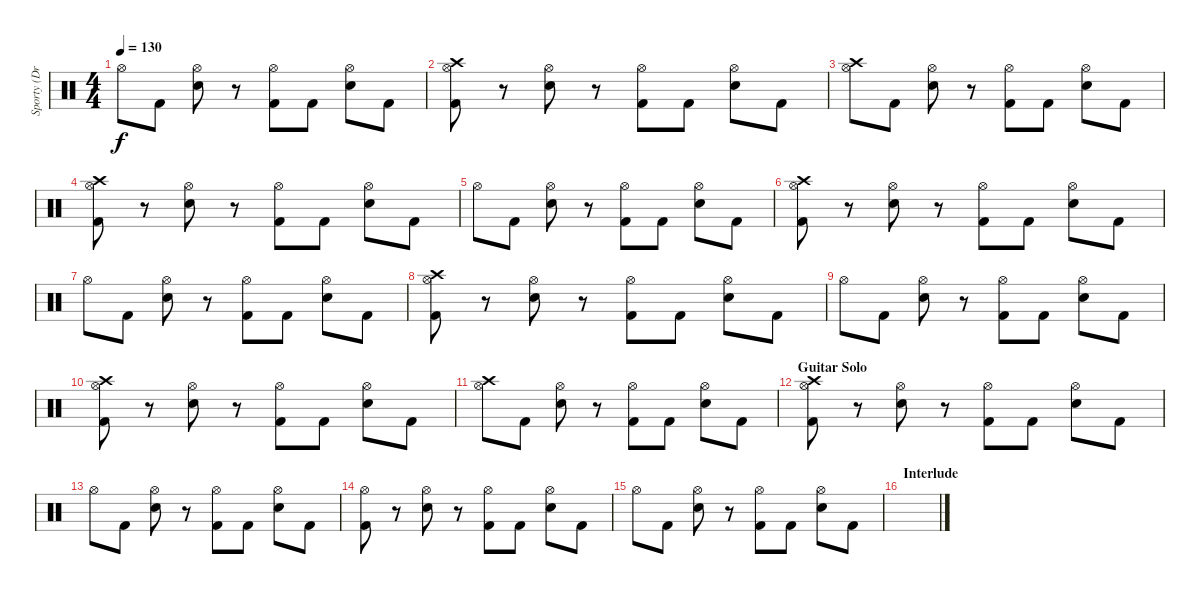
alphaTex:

\track ("Sporty (Drums)" "Sporty (Dr") {instrument percussion}
\staff {score}
\articulation defaults
\ts (4 4)
\tempo 130
\clef neutral
\ks c "Hi-Hat (open)".8{dy f} "Kick (hit) 2".8
("Hi-Hat (open)" "Snare (hit) 2").8 r.8 ("Hi-Hat (open)" "Kick (hit) 2").8 "Kick (hit) 2".8 ("Hi-Hat (open)" "Snare (hit) 2").8 "Kick (hit) 2".8 |
("Crash high (hit)" "Hi-Hat (open)" "Kick (hit) 2").8 r.8 ("Hi-Hat (open)" "Snare (hit) 2").8 r.8 ("Hi-Hat (open)" "Kick (hit) 2").8 "Kick (hit) 2".8 ("Hi-Hat (open)" "Snare (hit) 2").8 "Kick (hit) 2".8 |
("Crash high (hit)" "Hi-Hat (open)").8 "Kick (hit) 2".8 ("Hi-Hat (open)" "Snare (hit) 2").8 r.8 ("Hi-Hat (open)" "Kick (hit) 2").8 "Kick (hit) 2".8 ("Hi-Hat (open)" "Snare (hit) 2").8 "Kick (hit) 2".8 |
("Crash high (hit)" "Hi-Hat (open)" "Kick (hit) 2").8 r.8 ("Hi-Hat (open)" "Snare (hit) 2").8 r.8 ("Hi-Hat (open)" "Kick (hit) 2").8 "Kick (hit) 2".8 ("Hi-Hat (open)" "Snare (hit) 2").8 "Kick (hit) 2".8 |
"Hi-Hat (open)".8 "Kick (hit) 2".8 ("Hi-Hat (open)" "Snare (hit) 2").8 r.8 ("Hi-Hat (open)" "Kick (hit) 2").8 "Kick (hit) 2".8 ("Hi-Hat (open)" "Snare (hit) 2").8 "Kick (hit) 2".8 |
("Crash high (hit)" "Hi-Hat (open)" "Kick (hit) 2").8 r.8 ("Hi-Hat (open)" "Snare (hit) 2").8 r.8 ("Hi-Hat (open)" "Kick (hit) 2").8 "Kick (hit) 2".8 ("Hi-Hat (open)" "Snare (hit) 2").8 "Kick (hit) 2".8 |
"Hi-Hat (open)".8 "Kick (hit) 2".8 ("Hi-Hat (open)" "Snare (hit) 2").8 r.8 ("Hi-Hat (open)" "Kick (hit) 2").8 "Kick (hit) 2".8 ("Hi-Hat (open)" "Snare (hit) 2").8 "Kick (hit) 2".8 |
("Crash high (hit)" "Hi-Hat (open)" "Kick (hit) 2").8 r.8 ("Hi-Hat (open)" "Snare (hit) 2").8 r.8 ("Hi-Hat (open)" "Kick (hit) 2").8 "Kick (hit) 2".8 ("Hi-Hat (open)" "Snare (hit) 2").8 "Kick (hit) 2".8 |
"Hi-Hat (open)".8 "Kick (hit) 2".8 ("Hi-Hat (open)" "Snare (hit) 2").8 r.8 ("Hi-Hat (open)" "Kick (hit) 2").8 "Kick (hit) 2".8 ("Hi-Hat (open)" "Snare (hit) 2").8 "Kick (hit) 2".8 |
("Crash high (hit)" "Hi-Hat (open)" "Kick (hit) 2").8 r.8 ("Hi-Hat (open)" "Snare (hit) 2").8 r.8 ("Hi-Hat (open)" "Kick (hit) 2").8 "Kick (hit) 2".8 ("Hi-Hat (open)" "Snare (hit) 2").8 "Kick (hit) 2".8 |
("Crash high (hit)" "Hi-Hat (open)").8 "Kick (hit) 2".8 ("Hi-Hat (open)" "Snare (hit) 2").8 r.8 ("Hi-Hat (open)" "Kick (hit) 2").8 "Kick (hit) 2".8 ("Hi-Hat (open)" "Snare (hit) 2").8 "Kick (hit) 2".8 |
\section ("" "Guitar Solo")
("Crash high (hit)" "Hi-Hat (open)" "Kick (hit) 2").8 r.8 ("Hi-Hat (open)" "Snare (hit) 2").8 r.8 ("Hi-Hat (open)" "Kick (hit) 2").8 "Kick (hit) 2".8 ("Hi-Hat (open)" "Snare (hit) 2").8 "Kick (hit) 2".8 |
"Hi-Hat (open)".8 "Kick (hit) 2".8 ("Hi-Hat (open)" "Snare (hit) 2").8 r.8 ("Hi-Hat (open)" "Kick (hit) 2").8 "Kick (hit) 2".8 ("Hi-Hat (open)" "Snare (hit) 2").8 "Kick (hit) 2".8 |
("Hi-Hat (open)" "Kick (hit) 2").8 r.8 ("Hi-Hat (open)" "Snare (hit) 2").8 r.8 ("Hi-Hat (open)" "Kick (hit) 2").8 "Kick (hit) 2".8 ("Hi-Hat (open)" "Snare (hit) 2").8 "Kick (hit) 2".8 |
"Hi-Hat (open)".8 "Kick (hit) 2".8 ("Hi-Hat (open)" "Snare (hit) 2").8 r.8 ("Hi-Hat (open)" "Kick (hit) 2").8 "Kick (hit) 2".8 ("Hi-Hat (open)" "Snare (hit) 2").8 "Kick (hit) 2".8 |
\section ("" "Interlude")
